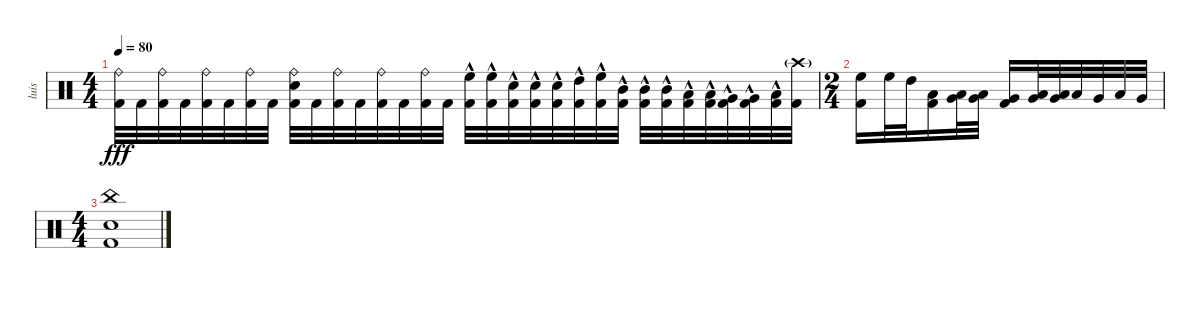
\track ("luis" "luis") {instrument percussion}
\staff {score}
\articulation defaults
\ts (4 4)
\tempo 80
\clef neutral
\ks c
("Ride (bell)" "Kick (hit) 2").32{dy fff} "Kick (hit) 2".32 ("Ride (bell)" "Kick (hit) 2").32 "Kick (hit) 2".32 ("Ride (bell)" "Kick (hit) 2").32 "Kick (hit) 2".32 ("Ride (bell)" "Kick (hit) 2").32 "Kick (hit) 2".32 ("Ride (bell)" "Electric Snare (hit)" "Kick (hit) 2").32 "Kick (hit) 2".32 ("Ride (bell)" "Kick (hit) 2").32 "Kick (hit) 2".32 ("Ride (bell)" "Kick (hit) 2").32 "Kick (hit) 2".32 ("Ride (bell)" "Kick (hit) 2").32 "Kick (hit) 2".32 ("High Floor Tom (hit)"{hac} "Kick (hit) 2").32 ("High Floor Tom (hit)"{hac} "Kick (hit) 2").32 ("Electric Snare (hit)"{hac} "Kick (hit) 2").32 ("Electric Snare (hit)"{hac} "Kick (hit) 2").32 ("Electric Snare (hit)"{hac} "Kick (hit) 2").32 ("High Tom (hit)"{hac} "Kick (hit) 2").32 ("High Floor Tom (hit)"{hac} "Kick (hit) 2").32 ("Mid Tom (hit)"{hac} "Kick (hit) 2").32 ("Mid Tom (hit)"{hac} "Kick (hit) 2").32 ("Mid Tom (hit)"{hac} "Kick (hit) 2").32 ("Low Tom (hit)"{hac} "Kick (hit) 2").32 ("Low Tom (hit)"{hac} "Kick (hit) 2").32 ("Very Low Tom (hit)"{hac} "Kick (hit) 2").32 ("Very Low Tom (hit)"{hac} "Kick (hit) 2").32 ("Low Floor Tom (hit)"{hac} "Kick (hit) 2").32 ("Crash high (hit)"{g} "Kick (hit) 2").32 |
\ts (2 4)
("High Floor Tom (hit)" "Kick (hit) 2").16 "High Floor Tom (hit)".32 "High Tom (hit)".32 ("Low Tom (hit)" "Kick (hit) 2").16 ("Very Low Tom (hit)" "Low Tom (hit)").32 ("Very Low Tom (hit)" "Low Tom (hit)").32 ("Very Low Tom (hit)" "Kick (hit) 2").16 ("Low Floor Tom (hit)" "Very Low Tom (hit)").32 ("Low Floor Tom (hit)" "Very Low Tom (hit)").32 "Low Floor Tom (hit)".32 "Very Low Tom (hit)".32 "Low Floor Tom (hit)".32 "Very Low Tom (hit)".32 |
\ts (4 4)
("China (hit)" "Electric Snare (hit)" "Kick (hit) 2").1
